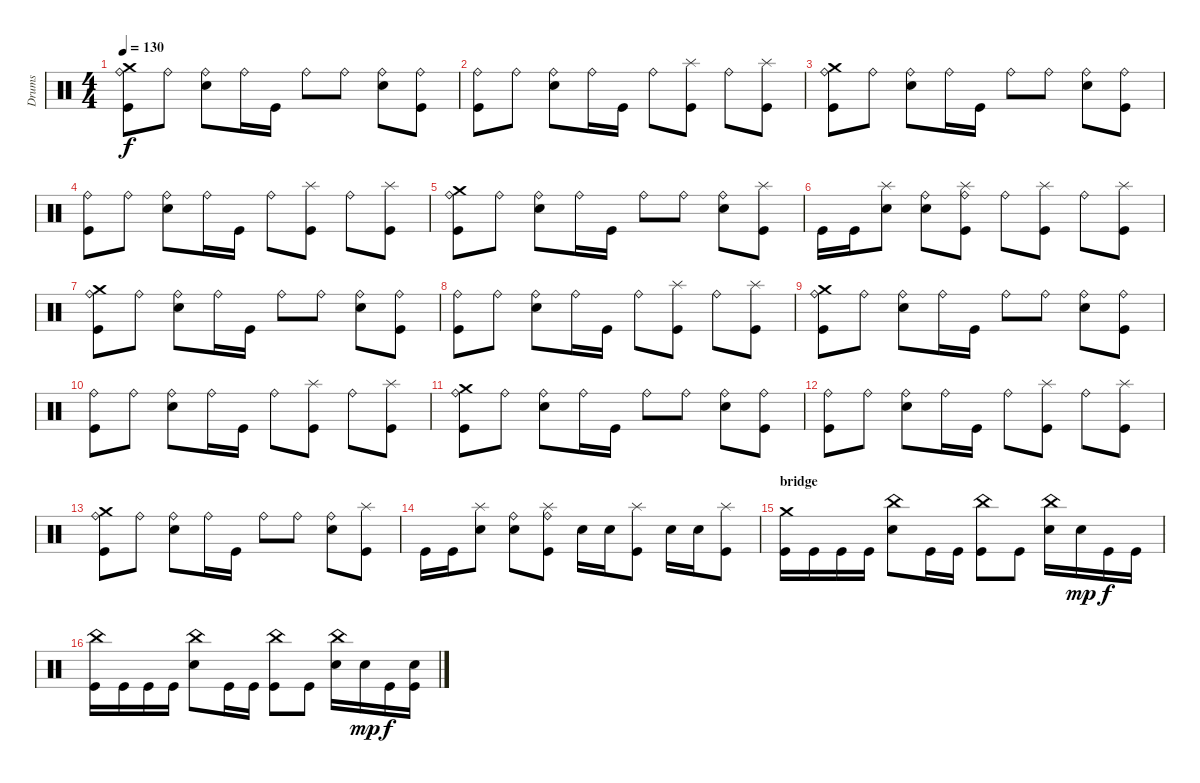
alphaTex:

\track ("Drums" "Drums") {instrument percussion}
\staff {score}
\articulation defaults
\ts (4 4)
\tempo 130
\clef neutral
\ks c
("Kick (hit)" "Crash medium (hit)" "Ride (bell)").8{dy f} "Ride (bell)".8 ("Electric Snare (hit)" "Ride (bell)").8 "Ride (bell)".16 "Kick (hit)".16 "Ride (bell)".8 "Ride (bell)".8 ("Electric Snare (hit)" "Ride (bell)").8 ("Kick (hit)" "Ride (bell)").8 |
("Kick (hit)" "Ride (bell)").8 "Ride (bell)".8 ("Electric Snare (hit)" "Ride (bell)").8 "Ride (bell)".16 "Kick (hit)".16 "Ride (bell)".8 ("Kick (hit)" "Splash (hit)").8 "Ride (bell)".8 ("Kick (hit)" "Splash (hit)").8 |
("Kick (hit)" "Crash medium (hit)" "Ride (bell)").8 "Ride (bell)".8 ("Electric Snare (hit)" "Ride (bell)").8 "Ride (bell)".16 "Kick (hit)".16 "Ride (bell)".8 "Ride (bell)".8 ("Electric Snare (hit)" "Ride (bell)").8 ("Kick (hit)" "Ride (bell)").8 |
("Kick (hit)" "Ride (bell)").8 "Ride (bell)".8 ("Electric Snare (hit)" "Ride (bell)").8 "Ride (bell)".16 "Kick (hit)".16 "Ride (bell)".8 ("Kick (hit)" "Splash (hit)").8 "Ride (bell)".8 ("Kick (hit)" "Splash (hit)").8 |
("Kick (hit)" "Crash medium (hit)" "Ride (bell)").8 "Ride (bell)".8 ("Electric Snare (hit)" "Ride (bell)").8 "Ride (bell)".16 "Kick (hit)".16 "Ride (bell)".8 "Ride (bell)".8 ("Electric Snare (hit)" "Ride (bell)").8 ("Kick (hit)" "Splash (hit)").8 |
"Kick (hit)".16 "Kick (hit)".16 ("Electric Snare (hit)" "Splash (hit)").8 ("Electric Snare (hit)" "Ride (bell)").8 ("Kick (hit)" "Splash (hit)" "Ride (bell)").8 "Ride (bell)".8 ("Kick (hit)" "Splash (hit)").8 "Ride (bell)".8 ("Kick (hit)" "Splash (hit)").8 |
("Kick (hit)" "Crash medium (hit)" "Ride (bell)").8 "Ride (bell)".8 ("Electric Snare (hit)" "Ride (bell)").8 "Ride (bell)".16 "Kick (hit)".16 "Ride (bell)".8 "Ride (bell)".8 ("Electric Snare (hit)" "Ride (bell)").8 ("Kick (hit)" "Ride (bell)").8 |
("Kick (hit)" "Ride (bell)").8 "Ride (bell)".8 ("Electric Snare (hit)" "Ride (bell)").8 "Ride (bell)".16 "Kick (hit)".16 "Ride (bell)".8 ("Kick (hit)" "Splash (hit)").8 "Ride (bell)".8 ("Kick (hit)" "Splash (hit)").8 |
("Kick (hit)" "Crash medium (hit)" "Ride (bell)").8 "Ride (bell)".8 ("Electric Snare (hit)" "Ride (bell)").8 "Ride (bell)".16 "Kick (hit)".16 "Ride (bell)".8 "Ride (bell)".8 ("Electric Snare (hit)" "Ride (bell)").8 ("Kick (hit)" "Ride (bell)").8 |
("Kick (hit)" "Ride (bell)").8 "Ride (bell)".8 ("Electric Snare (hit)" "Ride (bell)").8 "Ride (bell)".16 "Kick (hit)".16 "Ride (bell)".8 ("Kick (hit)" "Splash (hit)").8 "Ride (bell)".8 ("Kick (hit)" "Splash (hit)").8 |
("Kick (hit)" "Crash medium (hit)" "Ride (bell)").8 "Ride (bell)".8 ("Electric Snare (hit)" "Ride (bell)").8 "Ride (bell)".16 "Kick (hit)".16 "Ride (bell)".8 "Ride (bell)".8 ("Electric Snare (hit)" "Ride (bell)").8 ("Kick (hit)" "Ride (bell)").8 |
("Kick (hit)" "Ride (bell)").8 "Ride (bell)".8 ("Electric Snare (hit)" "Ride (bell)").8 "Ride (bell)".16 "Kick (hit)".16 "Ride (bell)".8 ("Kick (hit)" "Splash (hit)").8 "Ride (bell)".8 ("Kick (hit)" "Splash (hit)").8 |
("Kick (hit)" "Crash medium (hit)" "Ride (bell)").8 "Ride (bell)".8 ("Electric Snare (hit)" "Ride (bell)").8 "Ride (bell)".16 "Kick (hit)".16 "Ride (bell)".8 "Ride (bell)".8 ("Electric Snare (hit)" "Ride (bell)").8 ("Kick (hit)" "Splash (hit)").8 |
"Kick (hit)".16 "Kick (hit)".16 ("Electric Snare (hit)" "Splash (hit)").8 ("Electric Snare (hit)" "Ride (bell)").8 ("Kick (hit)" "Splash (hit)" "Ride (bell)").8 "Electric Snare (hit)".16 "Electric Snare (hit)".16 ("Kick (hit)" "Splash (hit)").8 "Electric Snare (hit)".16 "Electric Snare (hit)".16 ("Kick (hit)" "Splash (hit)").8 |
\section ("" "bridge")
("Kick (hit)" "Crash medium (hit)").16 "Kick (hit)".16 "Kick (hit)".16 "Kick (hit)".16 ("Electric Snare (hit)" "China (hit)").8 "Kick (hit)".16 "Kick (hit)".16 ("Kick (hit)" "China (hit)").8 "Kick (hit)".8 ("Electric Snare (hit)" "China (hit)").16 "Electric Snare (hit)".16{dy mp} "Kick (hit)".16{dy f} "Kick (hit)".16 |
("Kick (hit)" "China (hit)").16 "Kick (hit)".16 "Kick (hit)".16 "Kick (hit)".16 ("Electric Snare (hit)" "China (hit)").8 "Kick (hit)".16 "Kick (hit)".16 ("Kick (hit)" "China (hit)").8 "Kick (hit)".8 ("Electric Snare (hit)" "China (hit)").16 "Electric Snare (hit)".16{dy mp} "Kick (hit)".16{dy f} ("Kick (hit)" "Electric Snare (hit)").16
